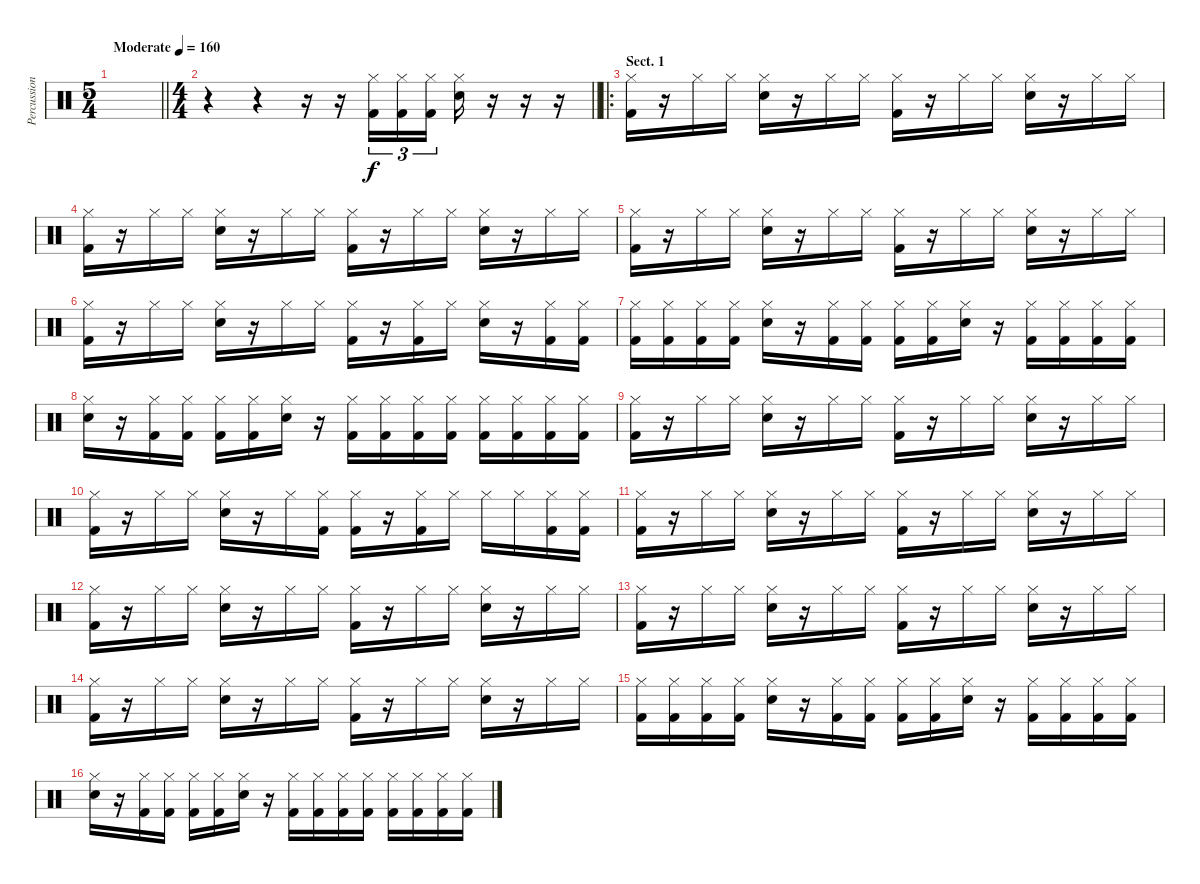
\track ("Percussion" "Percussion") {instrument percussion}
\staff {score}
\articulation defaults
\ts (5 4)
\tempo (160 "Moderate")
\clef neutral
\barLineRight lightlight
\ks c
|
\ts (4 4)
\barLineRight lightlight
r.4 r.4 r.16 r.16 ("Hi-Hat (closed)" "Kick (hit) 2").16{tu (3 2)} ("Hi-Hat (closed)" "Kick (hit) 2").16{tu (3 2)} ("Hi-Hat (closed)" "Kick (hit) 2").16{tu (3 2)} ("Hi-Hat (closed)" "Snare (hit) 2").16 r.16 r.16 r.16 |
\ro
\section ("" "Sect. 1")
("Hi-Hat (closed)" "Kick (hit) 2").16 r.16 "Hi-Hat (closed)".16 "Hi-Hat (closed)".16 ("Hi-Hat (closed)" "Snare (hit) 2").16 r.16 "Hi-Hat (closed)".16 "Hi-Hat (closed)".16 ("Hi-Hat (closed)" "Kick (hit) 2").16 r.16 "Hi-Hat (closed)".16 "Hi-Hat (closed)".16 ("Hi-Hat (closed)" "Snare (hit) 2").16 r.16 "Hi-Hat (closed)".16 "Hi-Hat (closed)".16 |
("Hi-Hat (closed)" "Kick (hit) 2").16 r.16 "Hi-Hat (closed)".16 "Hi-Hat (closed)".16 ("Hi-Hat (closed)" "Snare (hit) 2").16 r.16 "Hi-Hat (closed)".16 "Hi-Hat (closed)".16 ("Hi-Hat (closed)" "Kick (hit) 2").16 r.16 "Hi-Hat (closed)".16 "Hi-Hat (closed)".16 ("Hi-Hat (closed)" "Snare (hit) 2").16 r.16 "Hi-Hat (closed)".16 "Hi-Hat (closed)".16 |
("Hi-Hat (closed)" "Kick (hit) 2").16 r.16 "Hi-Hat (closed)".16 "Hi-Hat (closed)".16 ("Hi-Hat (closed)" "Snare (hit) 2").16 r.16 "Hi-Hat (closed)".16 "Hi-Hat (closed)".16 ("Hi-Hat (closed)" "Kick (hit) 2").16 r.16 "Hi-Hat (closed)".16 "Hi-Hat (closed)".16 ("Hi-Hat (closed)" "Snare (hit) 2").16 r.16 "Hi-Hat (closed)".16 "Hi-Hat (closed)".16 |
("Hi-Hat (closed)" "Kick (hit) 2").16 r.16 "Hi-Hat (closed)".16 "Hi-Hat (closed)".16 ("Hi-Hat (closed)" "Snare (hit) 2").16 r.16 "Hi-Hat (closed)".16 "Hi-Hat (closed)".16 ("Hi-Hat (closed)" "Kick (hit) 2").16 r.16 ("Hi-Hat (closed)" "Kick (hit) 2").16 "Hi-Hat (closed)".16 ("Hi-Hat (closed)" "Snare (hit) 2").16 r.16 ("Hi-Hat (closed)" "Kick (hit) 2").16 ("Hi-Hat (closed)" "Kick (hit) 2").16 |
("Hi-Hat (closed)" "Kick (hit) 2").16 ("Hi-Hat (closed)" "Kick (hit) 2").16 ("Hi-Hat (closed)" "Kick (hit) 2").16 ("Hi-Hat (closed)" "Kick (hit) 2").16 ("Hi-Hat (closed)" "Snare (hit) 2").16 r.16 ("Hi-Hat (closed)" "Kick (hit) 2").16 ("Hi-Hat (closed)" "Kick (hit) 2").16 ("Hi-Hat (closed)" "Kick (hit) 2").16 ("Hi-Hat (closed)" "Kick (hit) 2").16 ("Hi-Hat (closed)" "Snare (hit) 2").16 r.16 ("Hi-Hat (closed)" "Kick (hit) 2").16 ("Hi-Hat (closed)" "Kick (hit) 2").16 ("Hi-Hat (closed)" "Kick (hit) 2").16 ("Hi-Hat (closed)" "Kick (hit) 2").16 |
("Hi-Hat (closed)" "Snare (hit) 2").16 r.16 ("Hi-Hat (closed)" "Kick (hit) 2").16 ("Hi-Hat (closed)" "Kick (hit) 2").16 ("Hi-Hat (closed)" "Kick (hit) 2").16 ("Hi-Hat (closed)" "Kick (hit) 2").16 ("Hi-Hat (closed)" "Snare (hit) 2").16 r.16 ("Hi-Hat (closed)" "Kick (hit) 2").16 ("Hi-Hat (closed)" "Kick (hit) 2").16 ("Hi-Hat (closed)" "Kick (hit) 2").16 ("Hi-Hat (closed)" "Kick (hit) 2").16 ("Hi-Hat (closed)" "Kick (hit) 2").16 ("Hi-Hat (closed)" "Kick (hit) 2").16 ("Hi-Hat (closed)" "Kick (hit) 2").16 ("Hi-Hat (closed)" "Kick (hit) 2").16 |
("Hi-Hat (closed)" "Kick (hit) 2").16 r.16 "Hi-Hat (closed)".16 "Hi-Hat (closed)".16 ("Hi-Hat (closed)" "Snare (hit) 2").16 r.16 "Hi-Hat (closed)".16 "Hi-Hat (closed)".16 ("Hi-Hat (closed)" "Kick (hit) 2").16 r.16 "Hi-Hat (closed)".16 "Hi-Hat (closed)".16 ("Hi-Hat (closed)" "Snare (hit) 2").16 r.16 "Hi-Hat (closed)".16 "Hi-Hat (closed)".16 |
("Hi-Hat (closed)" "Kick (hit) 2").16 r.16 "Hi-Hat (closed)".16 "Hi-Hat (closed)".16 ("Hi-Hat (closed)" "Snare (hit) 2").16 r.16 "Hi-Hat (closed)".16 ("Hi-Hat (closed)" "Kick (hit) 2").16 ("Hi-Hat (closed)" "Kick (hit) 2").16 r.16 ("Hi-Hat (closed)" "Kick (hit) 2").16 "Hi-Hat (closed)".16 "Hi-Hat (closed)".16 "Hi-Hat (closed)".16 ("Hi-Hat (closed)" "Kick (hit) 2").16 ("Hi-Hat (closed)" "Kick (hit) 2").16 |
("Hi-Hat (closed)" "Kick (hit) 2").16 r.16 "Hi-Hat (closed)".16 "Hi-Hat (closed)".16 ("Hi-Hat (closed)" "Snare (hit) 2").16 r.16 "Hi-Hat (closed)".16 "Hi-Hat (closed)".16 ("Hi-Hat (closed)" "Kick (hit) 2").16 r.16 "Hi-Hat (closed)".16 "Hi-Hat (closed)".16 ("Hi-Hat (closed)" "Snare (hit) 2").16 r.16 "Hi-Hat (closed)".16 "Hi-Hat (closed)".16 |
("Hi-Hat (closed)" "Kick (hit) 2").16 r.16 "Hi-Hat (closed)".16 "Hi-Hat (closed)".16 ("Hi-Hat (closed)" "Snare (hit) 2").16 r.16 "Hi-Hat (closed)".16 "Hi-Hat (closed)".16 ("Hi-Hat (closed)" "Kick (hit) 2").16 r.16 "Hi-Hat (closed)".16 "Hi-Hat (closed)".16 ("Hi-Hat (closed)" "Snare (hit) 2").16 r.16 "Hi-Hat (closed)".16 "Hi-Hat (closed)".16 |
("Hi-Hat (closed)" "Kick (hit) 2").16 r.16 "Hi-Hat (closed)".16 "Hi-Hat (closed)".16 ("Hi-Hat (closed)" "Snare (hit) 2").16 r.16 "Hi-Hat (closed)".16 "Hi-Hat (closed)".16 ("Hi-Hat (closed)" "Kick (hit) 2").16 r.16 "Hi-Hat (closed)".16 "Hi-Hat (closed)".16 ("Hi-Hat (closed)" "Snare (hit) 2").16 r.16 "Hi-Hat (closed)".16 "Hi-Hat (closed)".16 |
("Hi-Hat (closed)" "Kick (hit) 2").16 r.16 "Hi-Hat (closed)".16 "Hi-Hat (closed)".16 ("Hi-Hat (closed)" "Snare (hit) 2").16 r.16 "Hi-Hat (closed)".16 "Hi-Hat (closed)".16 ("Hi-Hat (closed)" "Kick (hit) 2").16 r.16 "Hi-Hat (closed)".16 "Hi-Hat (closed)".16 ("Hi-Hat (closed)" "Snare (hit) 2").16 r.16 "Hi-Hat (closed)".16 "Hi-Hat (closed)".16 |
("Hi-Hat (closed)" "Kick (hit) 2").16 ("Hi-Hat (closed)" "Kick (hit) 2").16 ("Hi-Hat (closed)" "Kick (hit) 2").16 ("Hi-Hat (closed)" "Kick (hit) 2").16 ("Hi-Hat (closed)" "Snare (hit) 2").16 r.16 ("Hi-Hat (closed)" "Kick (hit) 2").16 ("Hi-Hat (closed)" "Kick (hit) 2").16 ("Hi-Hat (closed)" "Kick (hit) 2").16 ("Hi-Hat (closed)" "Kick (hit) 2").16 ("Hi-Hat (closed)" "Snare (hit) 2").16 r.16 ("Hi-Hat (closed)" "Kick (hit) 2").16 ("Hi-Hat (closed)" "Kick (hit) 2").16 ("Hi-Hat (closed)" "Kick (hit) 2").16 ("Hi-Hat (closed)" "Kick (hit) 2").16 |
("Hi-Hat (closed)" "Snare (hit) 2").16 r.16 ("Hi-Hat (closed)" "Kick (hit) 2").16 ("Hi-Hat (closed)" "Kick (hit) 2").16 ("Hi-Hat (closed)" "Kick (hit) 2").16 ("Hi-Hat (closed)" "Kick (hit) 2").16 ("Hi-Hat (closed)" "Snare (hit) 2").16 r.16 ("Hi-Hat (closed)" "Kick (hit) 2").16 ("Hi-Hat (closed)" "Kick (hit) 2").16 ("Hi-Hat (closed)" "Kick (hit) 2").16 ("Hi-Hat (closed)" "Kick (hit) 2").16 ("Hi-Hat (closed)" "Kick (hit) 2").16 ("Hi-Hat (closed)" "Kick (hit) 2").16 ("Hi-Hat (closed)" "Kick (hit) 2").16 ("Hi-Hat (closed)" "Kick (hit) 2").16
